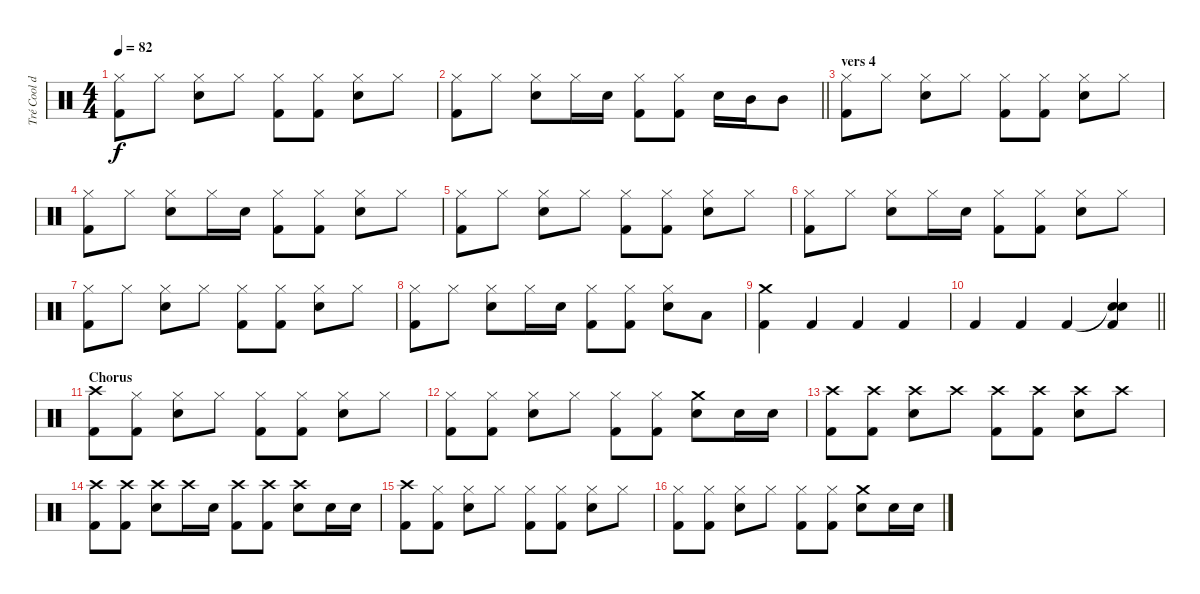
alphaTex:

\track ("Tré Cool drums" "Tré Cool d") {instrument percussion}
\staff {score}
\articulation defaults
\ts (4 4)
\tempo 82
\clef neutral
\ks c
("Hi-Hat (closed)" "Kick (hit) 2").8{dy f} "Hi-Hat (closed)".8 ("Hi-Hat (closed)" "Snare (hit) 2").8 "Hi-Hat (closed)".8 ("Hi-Hat (closed)" "Kick (hit) 2").8 ("Hi-Hat (closed)" "Kick (hit) 2").8 ("Hi-Hat (closed)" "Snare (hit) 2").8 "Hi-Hat (closed)".8 |
\barLineRight lightlight
("Hi-Hat (closed)" "Kick (hit) 2").8 "Hi-Hat (closed)".8 ("Hi-Hat (closed)" "Snare (hit) 2").8 "Hi-Hat (closed)".16 "Snare (hit) 2".16 ("Hi-Hat (closed)" "Kick (hit) 2").8 ("Hi-Hat (closed)" "Kick (hit) 2").8 "Snare (hit) 2".16 "Mid Tom (hit)".16 "Mid Tom (hit)".8 |
\section ("" "vers 4")
("Hi-Hat (closed)" "Kick (hit) 2").8 "Hi-Hat (closed)".8 ("Hi-Hat (closed)" "Snare (hit) 2").8 "Hi-Hat (closed)".8 ("Hi-Hat (closed)" "Kick (hit) 2").8 ("Hi-Hat (closed)" "Kick (hit) 2").8 ("Hi-Hat (closed)" "Snare (hit) 2").8 "Hi-Hat (closed)".8 |
("Hi-Hat (closed)" "Kick (hit) 2").8 "Hi-Hat (closed)".8 ("Hi-Hat (closed)" "Snare (hit) 2").8 "Hi-Hat (closed)".16 "Snare (hit) 2".16 ("Hi-Hat (closed)" "Kick (hit) 2").8 ("Hi-Hat (closed)" "Kick (hit) 2").8 ("Hi-Hat (closed)" "Snare (hit) 2").8 "Hi-Hat (closed)".8 |
("Hi-Hat (closed)" "Kick (hit) 2").8 "Hi-Hat (closed)".8 ("Hi-Hat (closed)" "Snare (hit) 2").8 "Hi-Hat (closed)".8 ("Hi-Hat (closed)" "Kick (hit) 2").8 ("Hi-Hat (closed)" "Kick (hit) 2").8 ("Hi-Hat (closed)" "Snare (hit) 2").8 "Hi-Hat (closed)".8 |
("Hi-Hat (closed)" "Kick (hit) 2").8 "Hi-Hat (closed)".8 ("Hi-Hat (closed)" "Snare (hit) 2").8 "Hi-Hat (closed)".16 "Snare (hit) 2".16 ("Hi-Hat (closed)" "Kick (hit) 2").8 ("Hi-Hat (closed)" "Kick (hit) 2").8 ("Hi-Hat (closed)" "Snare (hit) 2").8 "Hi-Hat (closed)".8 |
("Hi-Hat (closed)" "Kick (hit) 2").8 "Hi-Hat (closed)".8 ("Hi-Hat (closed)" "Snare (hit) 2").8 "Hi-Hat (closed)".8 ("Hi-Hat (closed)" "Kick (hit) 2").8 ("Hi-Hat (closed)" "Kick (hit) 2").8 ("Hi-Hat (closed)" "Snare (hit) 2").8 "Hi-Hat (closed)".8 |
("Hi-Hat (closed)" "Kick (hit) 2").8 "Hi-Hat (closed)".8 ("Hi-Hat (closed)" "Snare (hit) 2").8 "Hi-Hat (closed)".16 "Snare (hit) 2".16 ("Hi-Hat (closed)" "Kick (hit) 2").8 ("Hi-Hat (closed)" "Kick (hit) 2").8 ("Hi-Hat (closed)" "Snare (hit) 2").8 "Low Floor Tom (hit)".8 |
("Crash medium (hit)" "Kick (hit) 2").4 "Kick (hit) 2".4 "Kick (hit) 2".4 "Kick (hit) 2".4 |
\barLineRight lightlight "Kick (hit) 2".4 "Kick (hit) 2".4 "Kick (hit) 2".4
("Snare (hit)"{t} "Snare (hit) 2" "Kick (hit) 2").4 |
\section ("" "Chorus")
("Crash high (hit)" "Kick (hit) 2").8 ("Hi-Hat (closed)" "Kick (hit) 2").8 ("Hi-Hat (closed)" "Snare (hit) 2").8 "Hi-Hat (closed)".8 ("Hi-Hat (closed)" "Kick (hit) 2").8 ("Hi-Hat (closed)" "Kick (hit) 2").8 ("Hi-Hat (closed)" "Snare (hit) 2").8 "Hi-Hat (closed)".8 |
("Hi-Hat (closed)" "Kick (hit) 2").8 ("Hi-Hat (closed)" "Kick (hit) 2").8 ("Hi-Hat (closed)" "Snare (hit) 2").8 "Hi-Hat (closed)".8 ("Hi-Hat (closed)" "Kick (hit) 2").8 ("Hi-Hat (closed)" "Kick (hit) 2").8 ("Crash medium (hit)" "Snare (hit) 2").8 "Snare (hit) 2".16 "Snare (hit) 2".16 |
("Crash high (hit)" "Kick (hit) 2").8 ("Crash high (hit)" "Kick (hit) 2").8 ("Crash high (hit)" "Snare (hit) 2").8 "Crash high (hit)".8 ("Crash high (hit)" "Kick (hit) 2").8 ("Crash high (hit)" "Kick (hit) 2").8 ("Crash high (hit)" "Snare (hit) 2").8 "Crash high (hit)".8 |
("Crash high (hit)" "Kick (hit) 2").8 ("Crash high (hit)" "Kick (hit) 2").8 ("Crash high (hit)" "Snare (hit) 2").8 "Crash high (hit)".16 "Snare (hit) 2".16 ("Crash high (hit)" "Kick (hit) 2").8 ("Crash high (hit)" "Kick (hit) 2").8 ("Crash high (hit)" "Snare (hit) 2").8 "Snare (hit) 2".16 "Snare (hit) 2".16 |
("Crash high (hit)" "Kick (hit) 2").8 ("Hi-Hat (closed)" "Kick (hit) 2").8 ("Hi-Hat (closed)" "Snare (hit) 2").8 "Hi-Hat (closed)".8 ("Hi-Hat (closed)" "Kick (hit) 2").8 ("Hi-Hat (closed)" "Kick (hit) 2").8 ("Hi-Hat (closed)" "Snare (hit) 2").8 "Hi-Hat (closed)".8 |
("Hi-Hat (closed)" "Kick (hit) 2").8 ("Hi-Hat (closed)" "Kick (hit) 2").8 ("Hi-Hat (closed)" "Snare (hit) 2").8 "Hi-Hat (closed)".8 ("Hi-Hat (closed)" "Kick (hit) 2").8 ("Hi-Hat (closed)" "Kick (hit) 2").8 ("Crash medium (hit)" "Snare (hit) 2").8 "Snare (hit) 2".16 "Snare (hit) 2".16
